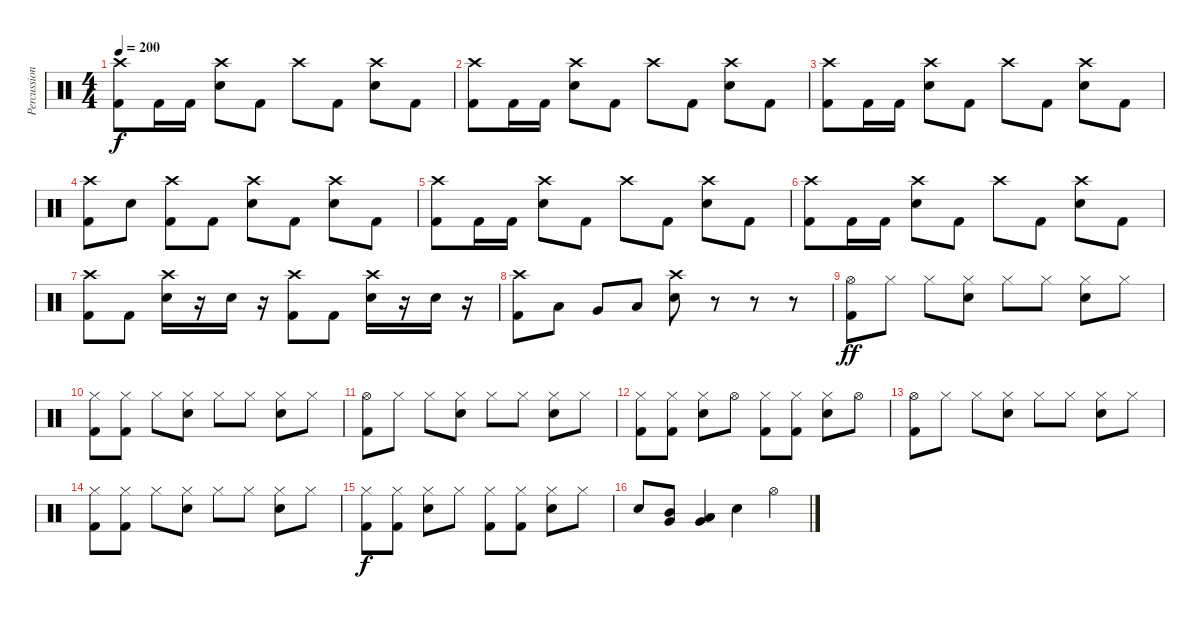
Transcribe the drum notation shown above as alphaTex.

\track ("Percussion" "Percussion") {instrument percussion}
\staff {score}
\articulation defaults
\ts (4 4)
\tempo 200
\clef neutral
\ks c
("Crash high (hit)" "Kick (hit) 2").8{dy f} "Kick (hit) 2".16 "Kick (hit) 2".16 ("Crash high (hit)" "Snare (hit) 2").8 "Kick (hit) 2".8 "Crash high (hit)".8 "Kick (hit) 2".8 ("Crash high (hit)" "Snare (hit) 2").8 "Kick (hit) 2".8 |
("Crash high (hit)" "Kick (hit) 2").8 "Kick (hit) 2".16 "Kick (hit) 2".16 ("Crash high (hit)" "Snare (hit) 2").8 "Kick (hit) 2".8 "Crash high (hit)".8 "Kick (hit) 2".8 ("Crash high (hit)" "Snare (hit) 2").8 "Kick (hit) 2".8 |
("Crash high (hit)" "Kick (hit) 2").8 "Kick (hit) 2".16 "Kick (hit) 2".16 ("Crash high (hit)" "Snare (hit) 2").8 "Kick (hit) 2".8 "Crash high (hit)".8 "Kick (hit) 2".8 ("Crash high (hit)" "Snare (hit) 2").8 "Kick (hit) 2".8 |
("Crash high (hit)" "Kick (hit) 2").8 "Snare (hit) 2".8 ("Crash high (hit)" "Kick (hit) 2").8 "Kick (hit) 2".8 ("Crash high (hit)" "Snare (hit) 2").8 "Kick (hit) 2".8 ("Crash high (hit)" "Snare (hit) 2").8 "Kick (hit) 2".8 |
("Crash high (hit)" "Kick (hit) 2").8 "Kick (hit) 2".16 "Kick (hit) 2".16 ("Crash high (hit)" "Snare (hit) 2").8 "Kick (hit) 2".8 "Crash high (hit)".8 "Kick (hit) 2".8 ("Crash high (hit)" "Snare (hit) 2").8 "Kick (hit) 2".8 |
("Crash high (hit)" "Kick (hit) 2").8 "Kick (hit) 2".16 "Kick (hit) 2".16 ("Crash high (hit)" "Snare (hit) 2").8 "Kick (hit) 2".8 "Crash high (hit)".8 "Kick (hit) 2".8 ("Crash high (hit)" "Snare (hit) 2").8 "Kick (hit) 2".8 |
("Crash high (hit)" "Kick (hit) 2").8 "Kick (hit) 2".8 ("Crash high (hit)" "Snare (hit) 2").16 r.16 "Snare (hit) 2".16 r.16 ("Crash high (hit)" "Kick (hit) 2").8 "Kick (hit) 2".8 ("Crash high (hit)" "Snare (hit) 2").16 r.16 "Snare (hit) 2".16 r.16 |
("Crash high (hit)" "Kick (hit) 2").8 "Low Tom (hit)".8 "Very Low Tom (hit)".8 "Low Floor Tom (hit)".8 ("Crash high (hit)" "Snare (hit) 2").8 r.8 r.8 r.8 |
("Hi-Hat (open)" "Kick (hit) 2").8{dy ff} "Hi-Hat (closed)".8 "Hi-Hat (closed)".8 ("Hi-Hat (closed)" "Snare (hit) 2").8 "Hi-Hat (closed)".8 "Hi-Hat (closed)".8 ("Hi-Hat (closed)" "Snare (hit) 2").8 "Hi-Hat (closed)".8 |
("Hi-Hat (closed)" "Kick (hit) 2").8 ("Hi-Hat (closed)" "Kick (hit) 2").8 "Hi-Hat (closed)".8 ("Hi-Hat (closed)" "Snare (hit) 2").8 "Hi-Hat (closed)".8 "Hi-Hat (closed)".8 ("Hi-Hat (closed)" "Snare (hit) 2").8 "Hi-Hat (closed)".8 |
("Hi-Hat (open)" "Kick (hit) 2").8 "Hi-Hat (closed)".8 "Hi-Hat (closed)".8 ("Hi-Hat (closed)" "Snare (hit) 2").8 "Hi-Hat (closed)".8 "Hi-Hat (closed)".8 ("Hi-Hat (closed)" "Snare (hit) 2").8 "Hi-Hat (closed)".8 |
("Hi-Hat (closed)" "Kick (hit) 2").8 ("Hi-Hat (closed)" "Kick (hit) 2").8 ("Hi-Hat (closed)" "Snare (hit) 2").8 "Hi-Hat (open)".8 ("Hi-Hat (closed)" "Kick (hit) 2").8 ("Hi-Hat (closed)" "Kick (hit) 2").8 ("Hi-Hat (closed)" "Snare (hit) 2").8 "Hi-Hat (open)".8 |
("Hi-Hat (open)" "Kick (hit) 2").8 "Hi-Hat (closed)".8 "Hi-Hat (closed)".8 ("Hi-Hat (closed)" "Snare (hit) 2").8 "Hi-Hat (closed)".8 "Hi-Hat (closed)".8 ("Hi-Hat (closed)" "Snare (hit) 2").8 "Hi-Hat (closed)".8 |
("Hi-Hat (closed)" "Kick (hit) 2").8 ("Hi-Hat (closed)" "Kick (hit) 2").8 "Hi-Hat (closed)".8 ("Hi-Hat (closed)" "Snare (hit) 2").8 "Hi-Hat (closed)".8 "Hi-Hat (closed)".8 ("Hi-Hat (closed)" "Snare (hit) 2").8 "Hi-Hat (closed)".8 |
("Hi-Hat (closed)" "Kick (hit) 2").8{dy f} ("Hi-Hat (closed)" "Kick (hit) 2").8 ("Hi-Hat (closed)" "Snare (hit) 2").8 "Hi-Hat (closed)".8 ("Hi-Hat (closed)" "Kick (hit) 2").8 ("Hi-Hat (closed)" "Kick (hit) 2").8 ("Hi-Hat (closed)" "Snare (hit) 2").8 "Hi-Hat (closed)".8 |
"Snare (hit) 2".8 ("Mid Tom (hit)" "Very Low Tom (hit)").8 ("Low Tom (hit)" "Very Low Tom (hit)").4 "Snare (hit) 2".4 "Hi-Hat (open)".4
